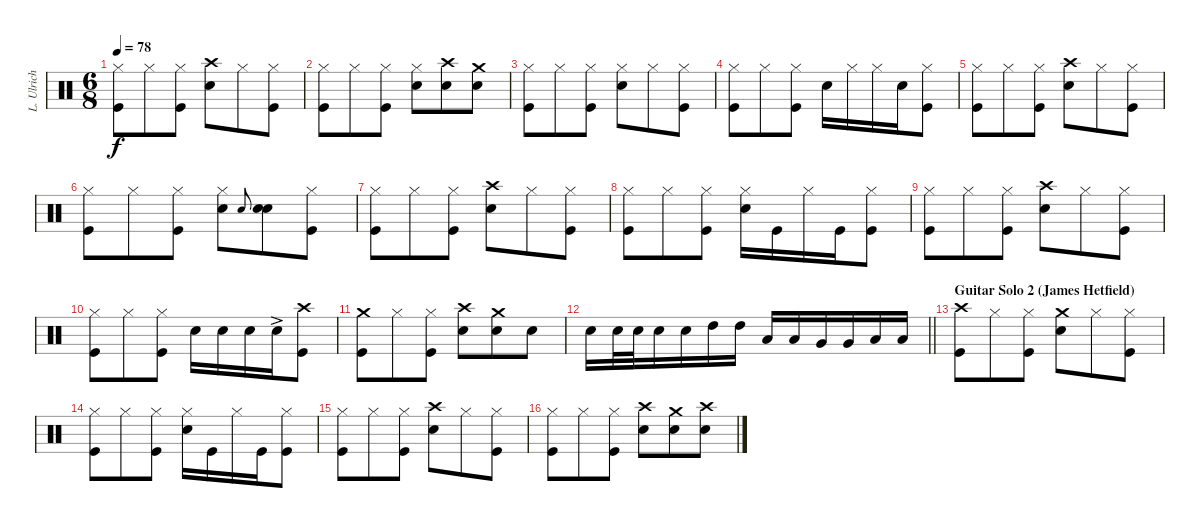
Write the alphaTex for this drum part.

\track ("L. Ulrich" "L. Ulrich") {instrument percussion}
\staff {score}
\articulation defaults
\ts (6 8)
\tempo 78
\clef neutral
\ks c
("Hi-Hat (closed)" "Kick (hit)").8{dy f} "Hi-Hat (closed)".8 ("Hi-Hat (closed)" "Kick (hit)").8 ("Crash high (hit)" "Snare (hit) 2").8 "Hi-Hat (closed)".8 ("Hi-Hat (closed)" "Kick (hit)").8 |
("Hi-Hat (closed)" "Kick (hit)").8 "Hi-Hat (closed)".8 ("Hi-Hat (closed)" "Kick (hit)").8 ("Hi-Hat (closed)" "Snare (hit) 2").8 ("Crash high (hit)" "Snare (hit) 2").8 ("Crash medium (hit)" "Snare (hit) 2").8 |
("Hi-Hat (closed)" "Kick (hit)").8 "Hi-Hat (closed)".8 ("Hi-Hat (closed)" "Kick (hit)").8 ("Hi-Hat (closed)" "Snare (hit) 2").8 "Hi-Hat (closed)".8 ("Hi-Hat (closed)" "Kick (hit)").8 |
("Hi-Hat (closed)" "Kick (hit)").8 "Hi-Hat (closed)".8 ("Hi-Hat (closed)" "Kick (hit)").8 "Snare (hit) 2".16 "Hi-Hat (closed)".16 "Hi-Hat (closed)".16 "Snare (hit) 2".16 ("Hi-Hat (closed)" "Kick (hit)").8 |
("Hi-Hat (closed)" "Kick (hit)").8 "Hi-Hat (closed)".8 ("Hi-Hat (closed)" "Kick (hit)").8 ("Crash high (hit)" "Snare (hit) 2").8 "Hi-Hat (closed)".8 ("Hi-Hat (closed)" "Kick (hit)").8 |
("Hi-Hat (closed)" "Kick (hit)").8 "Hi-Hat (closed)".8 ("Hi-Hat (closed)" "Kick (hit)").8 ("Hi-Hat (closed)" "Snare (hit) 2").8 "Snare (hit) 2".8{gr onbeat} ("Snare (hit) 2" "Snare (hit) 2").8 ("Hi-Hat (closed)" "Kick (hit)").8 |
("Hi-Hat (closed)" "Kick (hit)").8 "Hi-Hat (closed)".8 ("Hi-Hat (closed)" "Kick (hit)").8 ("Crash high (hit)" "Snare (hit) 2").8 "Hi-Hat (closed)".8 ("Hi-Hat (closed)" "Kick (hit)").8 |
("Hi-Hat (closed)" "Kick (hit)").8 "Hi-Hat (closed)".8 ("Hi-Hat (closed)" "Kick (hit)").8 ("Hi-Hat (closed)" "Snare (hit) 2").16 "Kick (hit)".16 "Hi-Hat (closed)".16 "Kick (hit)".16 ("Hi-Hat (closed)" "Kick (hit)").8 |
("Hi-Hat (closed)" "Kick (hit)").8 "Hi-Hat (closed)".8 ("Hi-Hat (closed)" "Kick (hit)").8 ("Crash high (hit)" "Snare (hit) 2").8 "Hi-Hat (closed)".8 ("Hi-Hat (closed)" "Kick (hit)").8 |
("Hi-Hat (closed)" "Kick (hit)").8 "Hi-Hat (closed)".8 ("Hi-Hat (closed)" "Kick (hit)").8 "Snare (hit) 2".16 "Snare (hit) 2".16 "Snare (hit) 2".16 "Snare (hit) 2"{ac}.16 ("Crash high (hit)" "Kick (hit)").8 |
("Crash medium (hit)" "Kick (hit)").8 "Hi-Hat (closed)".8 ("Hi-Hat (closed)" "Kick (hit)").8 ("Crash high (hit)" "Snare (hit) 2").8 ("Crash medium (hit)" "Snare (hit) 2").8 "Snare (hit) 2".8 |
\barLineRight lightlight "Snare (hit) 2".16 "Snare (hit) 2".32 "Snare (hit) 2".32 "Snare (hit) 2".16 "Snare (hit) 2".16 "High Tom (hit)".16 "High Tom (hit)".16 "Low Tom (hit)".16 "Low Tom (hit)".16 "Very Low Tom (hit)".16 "Very Low Tom (hit)".16 "Low Floor Tom (hit)".16 "Low Floor Tom (hit)".16
|
\section ("" "Guitar Solo 2 (James Hetfield)")
("Crash high (hit)" "Kick (hit)").8 "Hi-Hat (closed)".8 ("Hi-Hat (closed)" "Kick (hit)").8 ("Crash medium (hit)" "Snare (hit) 2").8 "Hi-Hat (closed)".8 ("Hi-Hat (closed)" "Kick (hit)").8 |
("Hi-Hat (closed)" "Kick (hit)").8 "Hi-Hat (closed)".8 ("Hi-Hat (closed)" "Kick (hit)").8 ("Hi-Hat (closed)" "Snare (hit) 2").16 "Kick (hit)".16 "Hi-Hat (closed)".16 "Kick (hit)".16 ("Hi-Hat (closed)" "Kick (hit)").8 |
("Hi-Hat (closed)" "Kick (hit)").8 "Hi-Hat (closed)".8 ("Hi-Hat (closed)" "Kick (hit)").8 ("Crash high (hit)" "Snare (hit) 2").8 "Hi-Hat (closed)".8 ("Hi-Hat (closed)" "Kick (hit)").8 |
("Hi-Hat (closed)" "Kick (hit)").8 "Hi-Hat (closed)".8 ("Hi-Hat (closed)" "Kick (hit)").8 ("Crash high (hit)" "Snare (hit) 2").8 ("Crash medium (hit)" "Snare (hit) 2").8 ("Crash high (hit)" "Snare (hit) 2").8
